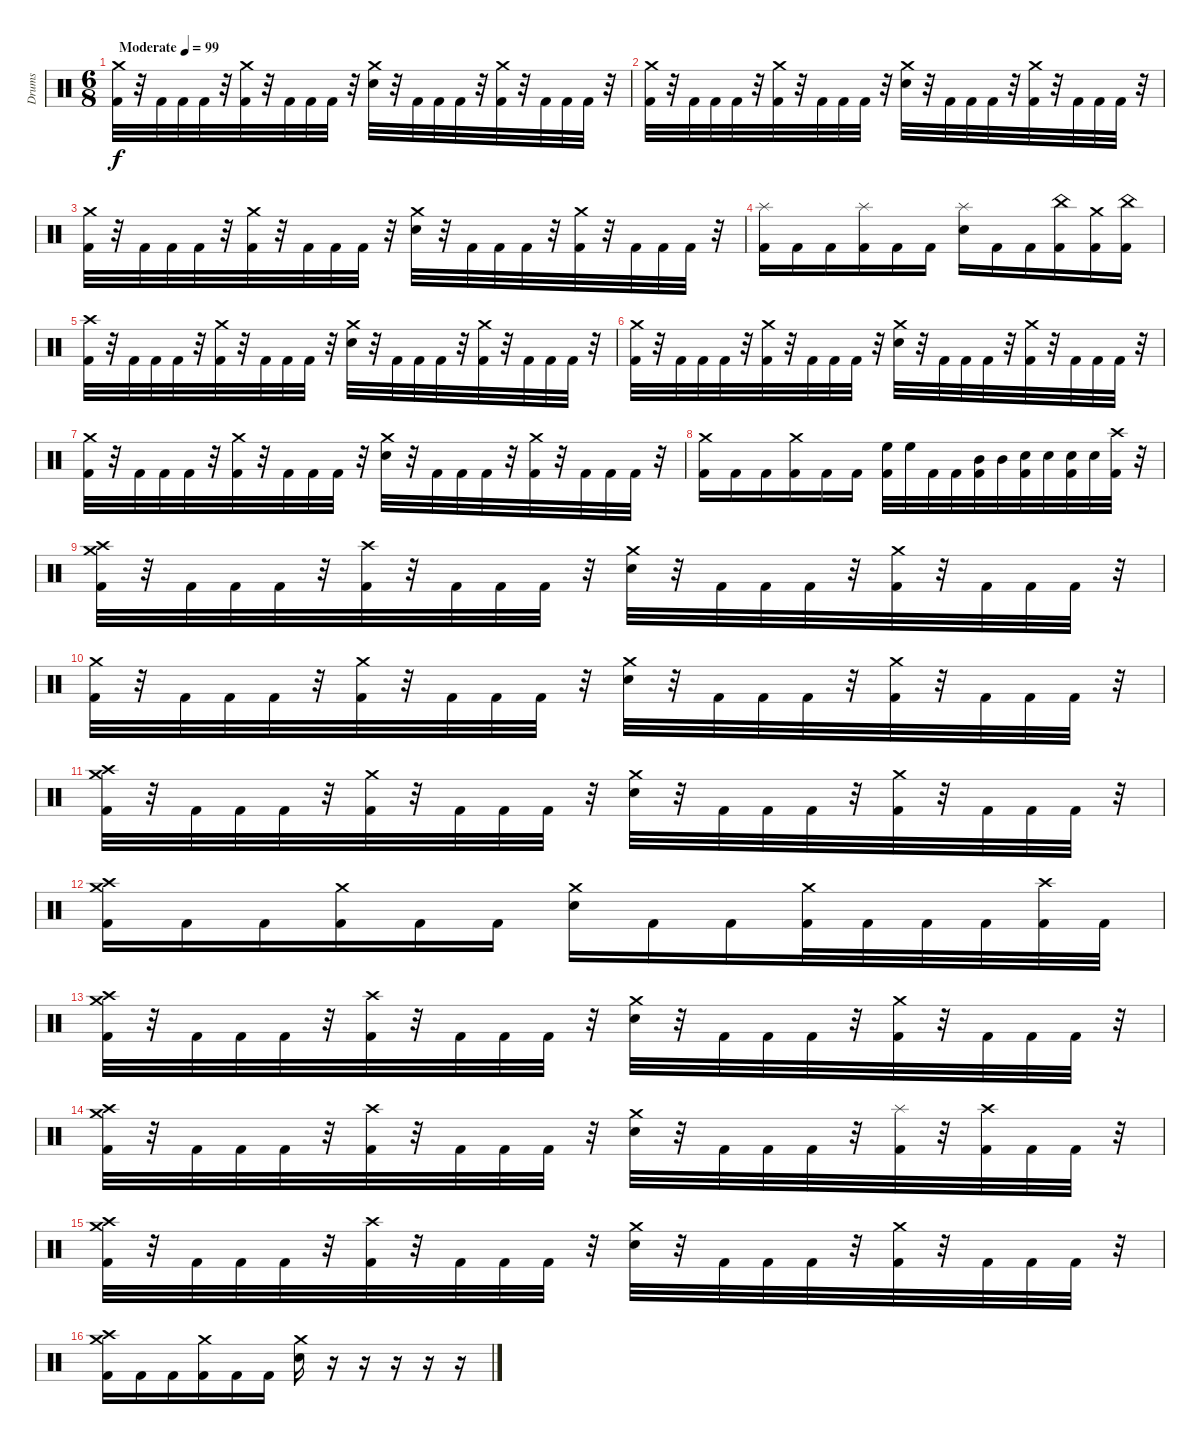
\track ("Drums" "Drums") {instrument percussion}
\staff {score}
\articulation defaults
\ts (6 8)
\tempo (99 "Moderate")
\clef neutral
\ks c
("Crash medium (hit)" "Kick (hit) 2").32{dy f} r.32 "Kick (hit) 2".32 "Kick (hit) 2".32 "Kick (hit) 2".32 r.32 ("Crash medium (hit)" "Kick (hit) 2").32 r.32 "Kick (hit) 2".32 "Kick (hit) 2".32 "Kick (hit) 2".32 r.32 ("Crash medium (hit)" "Electric Snare (hit)").32 r.32 "Kick (hit) 2".32 "Kick (hit) 2".32 "Kick (hit) 2".32 r.32 ("Crash medium (hit)" "Kick (hit) 2").32 r.32 "Kick (hit) 2".32 "Kick (hit) 2".32 "Kick (hit) 2".32 r.32 |
("Crash medium (hit)" "Kick (hit) 2").32 r.32 "Kick (hit) 2".32 "Kick (hit) 2".32 "Kick (hit) 2".32 r.32 ("Crash medium (hit)" "Kick (hit) 2").32 r.32 "Kick (hit) 2".32 "Kick (hit) 2".32 "Kick (hit) 2".32 r.32 ("Crash medium (hit)" "Electric Snare (hit)").32 r.32 "Kick (hit) 2".32 "Kick (hit) 2".32 "Kick (hit) 2".32 r.32 ("Crash medium (hit)" "Kick (hit) 2").32 r.32 "Kick (hit) 2".32 "Kick (hit) 2".32 "Kick (hit) 2".32 r.32 |
("Crash medium (hit)" "Kick (hit) 2").32 r.32 "Kick (hit) 2".32 "Kick (hit) 2".32 "Kick (hit) 2".32 r.32 ("Crash medium (hit)" "Kick (hit) 2").32 r.32 "Kick (hit) 2".32 "Kick (hit) 2".32 "Kick (hit) 2".32 r.32 ("Crash medium (hit)" "Electric Snare (hit)").32 r.32 "Kick (hit) 2".32 "Kick (hit) 2".32 "Kick (hit) 2".32 r.32 ("Crash medium (hit)" "Kick (hit) 2").32 r.32 "Kick (hit) 2".32 "Kick (hit) 2".32 "Kick (hit) 2".32 r.32 |
("Splash (hit)" "Kick (hit) 2").16 "Kick (hit) 2".16 "Kick (hit) 2".16 ("Splash (hit)" "Kick (hit) 2").16 "Kick (hit) 2".16 "Kick (hit) 2".16 ("Splash (hit)" "Electric Snare (hit)").16 "Kick (hit) 2".16 "Kick (hit) 2".16 ("China (hit)" "Kick (hit) 2").16 ("Crash medium (hit)" "Kick (hit) 2").16 ("China (hit)" "Kick (hit) 2").16 |
("Crash high (hit)" "Kick (hit) 2").32 r.32 "Kick (hit) 2".32 "Kick (hit) 2".32 "Kick (hit) 2".32 r.32 ("Crash medium (hit)" "Kick (hit) 2").32 r.32 "Kick (hit) 2".32 "Kick (hit) 2".32 "Kick (hit) 2".32 r.32 ("Crash medium (hit)" "Electric Snare (hit)").32 r.32 "Kick (hit) 2".32 "Kick (hit) 2".32 "Kick (hit) 2".32 r.32 ("Crash medium (hit)" "Kick (hit) 2").32 r.32 "Kick (hit) 2".32 "Kick (hit) 2".32 "Kick (hit) 2".32 r.32 |
("Crash medium (hit)" "Kick (hit) 2").32 r.32 "Kick (hit) 2".32 "Kick (hit) 2".32 "Kick (hit) 2".32 r.32 ("Crash medium (hit)" "Kick (hit) 2").32 r.32 "Kick (hit) 2".32 "Kick (hit) 2".32 "Kick (hit) 2".32 r.32 ("Crash medium (hit)" "Electric Snare (hit)").32 r.32 "Kick (hit) 2".32 "Kick (hit) 2".32 "Kick (hit) 2".32 r.32 ("Crash medium (hit)" "Kick (hit) 2").32 r.32 "Kick (hit) 2".32 "Kick (hit) 2".32 "Kick (hit) 2".32 r.32 |
("Crash medium (hit)" "Kick (hit) 2").32 r.32 "Kick (hit) 2".32 "Kick (hit) 2".32 "Kick (hit) 2".32 r.32 ("Crash medium (hit)" "Kick (hit) 2").32 r.32 "Kick (hit) 2".32 "Kick (hit) 2".32 "Kick (hit) 2".32 r.32 ("Crash medium (hit)" "Electric Snare (hit)").32 r.32 "Kick (hit) 2".32 "Kick (hit) 2".32 "Kick (hit) 2".32 r.32 ("Crash medium (hit)" "Kick (hit) 2").32 r.32 "Kick (hit) 2".32 "Kick (hit) 2".32 "Kick (hit) 2".32 r.32 |
("Crash medium (hit)" "Kick (hit) 2").16 "Kick (hit) 2".16 "Kick (hit) 2".16 ("Crash medium (hit)" "Kick (hit) 2").16 "Kick (hit) 2".16 "Kick (hit) 2".16 ("High Floor Tom (hit)" "Kick (hit) 2").32 "High Floor Tom (hit)".32 "Kick (hit) 2".32 "Kick (hit) 2".32 ("Mid Tom (hit)" "Kick (hit) 2").32 "Mid Tom (hit)".32 ("Electric Snare (hit)" "Kick (hit) 2").32 "Electric Snare (hit)".32 ("Electric Snare (hit)" "Kick (hit) 2").32 "Electric Snare (hit)".32 ("Crash high (hit)" "Kick (hit) 2").32 r.32 |
("Crash medium (hit)" "Crash high (hit)" "Kick (hit) 2").32 r.32 "Kick (hit) 2".32 "Kick (hit) 2".32 "Kick (hit) 2".32 r.32 ("Crash high (hit)" "Kick (hit) 2").32 r.32 "Kick (hit) 2".32 "Kick (hit) 2".32 "Kick (hit) 2".32 r.32 ("Crash medium (hit)" "Electric Snare (hit)").32 r.32 "Kick (hit) 2".32 "Kick (hit) 2".32 "Kick (hit) 2".32 r.32 ("Crash medium (hit)" "Kick (hit) 2").32 r.32 "Kick (hit) 2".32 "Kick (hit) 2".32 "Kick (hit) 2".32 r.32 |
("Crash medium (hit)" "Kick (hit) 2").32 r.32 "Kick (hit) 2".32 "Kick (hit) 2".32 "Kick (hit) 2".32 r.32 ("Crash medium (hit)" "Kick (hit) 2").32 r.32 "Kick (hit) 2".32 "Kick (hit) 2".32 "Kick (hit) 2".32 r.32 ("Crash medium (hit)" "Electric Snare (hit)").32 r.32 "Kick (hit) 2".32 "Kick (hit) 2".32 "Kick (hit) 2".32 r.32 ("Crash medium (hit)" "Kick (hit) 2").32 r.32 "Kick (hit) 2".32 "Kick (hit) 2".32 "Kick (hit) 2".32 r.32 |
("Crash medium (hit)" "Crash high (hit)" "Kick (hit) 2").32 r.32 "Kick (hit) 2".32 "Kick (hit) 2".32 "Kick (hit) 2".32 r.32 ("Crash medium (hit)" "Kick (hit) 2").32 r.32 "Kick (hit) 2".32 "Kick (hit) 2".32 "Kick (hit) 2".32 r.32 ("Crash medium (hit)" "Electric Snare (hit)").32 r.32 "Kick (hit) 2".32 "Kick (hit) 2".32 "Kick (hit) 2".32 r.32 ("Crash medium (hit)" "Kick (hit) 2").32 r.32 "Kick (hit) 2".32 "Kick (hit) 2".32 "Kick (hit) 2".32 r.32 |
("Crash medium (hit)" "Crash high (hit)" "Kick (hit) 2").16 "Kick (hit) 2".16 "Kick (hit) 2".16 ("Crash medium (hit)" "Kick (hit) 2").16 "Kick (hit) 2".16 "Kick (hit) 2".16 ("Crash medium (hit)" "Electric Snare (hit)").16 "Kick (hit) 2".16 "Kick (hit) 2".16 ("Crash medium (hit)" "Kick (hit) 2").32 "Kick (hit) 2".32 "Kick (hit) 2".32 "Kick (hit) 2".32 ("Crash high (hit)" "Kick (hit) 2").32 "Kick (hit) 2".32 |
("Crash medium (hit)" "Crash high (hit)" "Kick (hit) 2").32 r.32 "Kick (hit) 2".32 "Kick (hit) 2".32 "Kick (hit) 2".32 r.32 ("Crash high (hit)" "Kick (hit) 2").32 r.32 "Kick (hit) 2".32 "Kick (hit) 2".32 "Kick (hit) 2".32 r.32 ("Crash medium (hit)" "Electric Snare (hit)").32 r.32 "Kick (hit) 2".32 "Kick (hit) 2".32 "Kick (hit) 2".32 r.32 ("Crash medium (hit)" "Kick (hit) 2").32 r.32 "Kick (hit) 2".32 "Kick (hit) 2".32 "Kick (hit) 2".32 r.32 |
("Crash medium (hit)" "Crash high (hit)" "Kick (hit) 2").32 r.32 "Kick (hit) 2".32 "Kick (hit) 2".32 "Kick (hit) 2".32 r.32 ("Crash high (hit)" "Kick (hit) 2").32 r.32 "Kick (hit) 2".32 "Kick (hit) 2".32 "Kick (hit) 2".32 r.32 ("Crash medium (hit)" "Electric Snare (hit)").32 r.32 "Kick (hit) 2".32 "Kick (hit) 2".32 "Kick (hit) 2".32 r.32 ("Splash (hit)" "Kick (hit) 2").32 r.32 ("Crash high (hit)" "Kick (hit) 2").32 "Kick (hit) 2".32 "Kick (hit) 2".32 r.32 |
("Crash medium (hit)" "Crash high (hit)" "Kick (hit) 2").32 r.32 "Kick (hit) 2".32 "Kick (hit) 2".32 "Kick (hit) 2".32 r.32 ("Crash high (hit)" "Kick (hit) 2").32 r.32 "Kick (hit) 2".32 "Kick (hit) 2".32 "Kick (hit) 2".32 r.32 ("Crash medium (hit)" "Electric Snare (hit)").32 r.32 "Kick (hit) 2".32 "Kick (hit) 2".32 "Kick (hit) 2".32 r.32 ("Crash medium (hit)" "Kick (hit) 2").32 r.32 "Kick (hit) 2".32 "Kick (hit) 2".32 "Kick (hit) 2".32 r.32 |
("Crash medium (hit)" "Crash high (hit)" "Kick (hit) 2").16 "Kick (hit) 2".16 "Kick (hit) 2".16 ("Crash medium (hit)" "Kick (hit) 2").16 "Kick (hit) 2".16 "Kick (hit) 2".16 ("Crash medium (hit)" "Electric Snare (hit)").16 r.16 r.16 r.16 r.16 r.16
